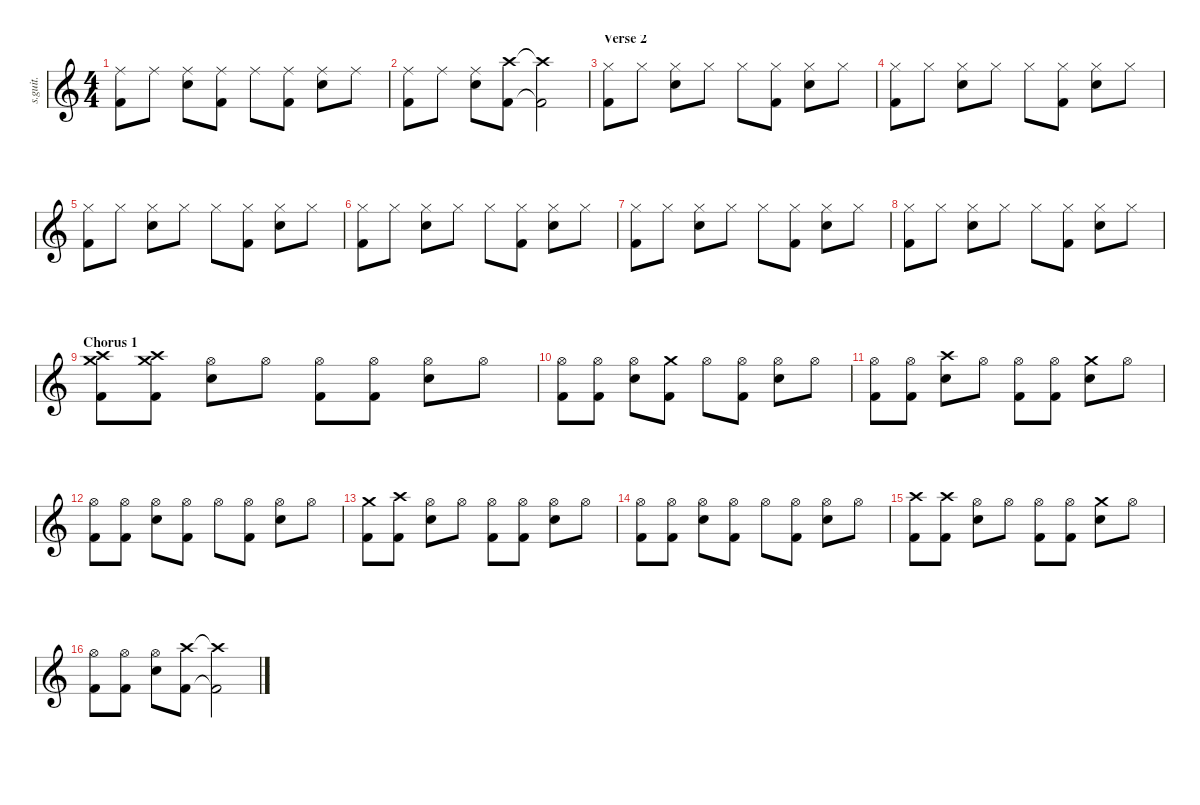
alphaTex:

\defaultSystemsLayout 4
\hideDynamics
\bracketExtendMode nobrackets
\track ("Drums (Pat Wilson)" "s.guit.") {instrument percussion}
\staff {score}
\articulation defaults
\ts (4 4)
\tempo (76 hide)
\clef g2
\ks c
("Ride (middle)" "Kick (hit) 2").8{lyrics (0 "") lyrics (1 "") lyrics (2 "") lyrics (3 "") lyrics (4 "") lyrics (5 "") lyrics (6 "") lyrics (7 "") lyrics (8 "") lyrics (9 "") dy f} "Ride (middle)".8{lyrics (0 "") lyrics (1 "") lyrics (2 "") lyrics (3 "") lyrics (4 "") lyrics (5 "") lyrics (6 "") lyrics (7 "") lyrics (8 "") lyrics (9 "")} ("Ride (middle)" "Snare (hit) 2").8{lyrics (0 "") lyrics (1 "") lyrics (2 "") lyrics (3 "") lyrics (4 "") lyrics (5 "") lyrics (6 "") lyrics (7 "") lyrics (8 "") lyrics (9 "")} ("Ride (middle)" "Kick (hit) 2").8{lyrics (0 "") lyrics (1 "") lyrics (2 "") lyrics (3 "") lyrics (4 "") lyrics (5 "") lyrics (6 "") lyrics (7 "") lyrics (8 "") lyrics (9 "")} "Ride (middle)".8{lyrics (0 "") lyrics (1 "") lyrics (2 "") lyrics (3 "") lyrics (4 "") lyrics (5 "") lyrics (6 "") lyrics (7 "") lyrics (8 "") lyrics (9 "")} ("Ride (middle)" "Kick (hit) 2").8{lyrics (0 "") lyrics (1 "") lyrics (2 "") lyrics (3 "") lyrics (4 "") lyrics (5 "") lyrics (6 "") lyrics (7 "") lyrics (8 "") lyrics (9 "")} ("Ride (middle)" "Snare (hit) 2").8{lyrics (0 "") lyrics (1 "") lyrics (2 "") lyrics (3 "") lyrics (4 "") lyrics (5 "") lyrics (6 "") lyrics (7 "") lyrics (8 "") lyrics (9 "")} "Ride (middle)".8{lyrics (0 "") lyrics (1 "") lyrics (2 "") lyrics (3 "") lyrics (4 "") lyrics (5 "") lyrics (6 "") lyrics (7 "") lyrics (8 "") lyrics (9 "")} |
("Ride (middle)" "Kick (hit) 2").8{lyrics (0 "") lyrics (1 "") lyrics (2 "") lyrics (3 "") lyrics (4 "") lyrics (5 "") lyrics (6 "") lyrics (7 "") lyrics (8 "") lyrics (9 "")} "Ride (middle)".8{lyrics (0 "") lyrics (1 "") lyrics (2 "") lyrics (3 "") lyrics (4 "") lyrics (5 "") lyrics (6 "") lyrics (7 "") lyrics (8 "") lyrics (9 "")} ("Ride (middle)" "Snare (hit) 2").8{lyrics (0 "") lyrics (1 "") lyrics (2 "") lyrics (3 "") lyrics (4 "") lyrics (5 "") lyrics (6 "") lyrics (7 "") lyrics (8 "") lyrics (9 "")} ("Crash high (hit)" "Kick (hit) 2").8{lyrics (0 "") lyrics (1 "") lyrics (2 "") lyrics (3 "") lyrics (4 "") lyrics (5 "") lyrics (6 "") lyrics (7 "") lyrics (8 "") lyrics (9 "")} ("Crash high (hit)"{t} "Kick (hit) 2"{t}).2{lyrics (0 "") lyrics (1 "") lyrics (2 "") lyrics (3 "") lyrics (4 "") lyrics (5 "") lyrics (6 "") lyrics (7 "") lyrics (8 "") lyrics (9 "")} |
\section ("" "Verse 2")
("Hi-Hat (closed)" "Kick (hit) 2").8{lyrics (0 "") lyrics (1 "") lyrics (2 "") lyrics (3 "") lyrics (4 "") lyrics (5 "") lyrics (6 "") lyrics (7 "") lyrics (8 "") lyrics (9 "")} "Hi-Hat (closed)".8{lyrics (0 "") lyrics (1 "") lyrics (2 "") lyrics (3 "") lyrics (4 "") lyrics (5 "") lyrics (6 "") lyrics (7 "") lyrics (8 "") lyrics (9 "")} ("Hi-Hat (closed)" "Snare (hit) 2").8{lyrics (0 "") lyrics (1 "") lyrics (2 "") lyrics (3 "") lyrics (4 "") lyrics (5 "") lyrics (6 "") lyrics (7 "") lyrics (8 "") lyrics (9 "")} "Hi-Hat (closed)".8{lyrics (0 "") lyrics (1 "") lyrics (2 "") lyrics (3 "") lyrics (4 "") lyrics (5 "") lyrics (6 "") lyrics (7 "") lyrics (8 "") lyrics (9 "")} "Hi-Hat (closed)".8{lyrics (0 "") lyrics (1 "") lyrics (2 "") lyrics (3 "") lyrics (4 "") lyrics (5 "") lyrics (6 "") lyrics (7 "") lyrics (8 "") lyrics (9 "")} ("Hi-Hat (closed)" "Kick (hit) 2").8{lyrics (0 "") lyrics (1 "") lyrics (2 "") lyrics (3 "") lyrics (4 "") lyrics (5 "") lyrics (6 "") lyrics (7 "") lyrics (8 "") lyrics (9 "")} ("Hi-Hat (closed)" "Snare (hit) 2").8{lyrics (0 "") lyrics (1 "") lyrics (2 "") lyrics (3 "") lyrics (4 "") lyrics (5 "") lyrics (6 "") lyrics (7 "") lyrics (8 "") lyrics (9 "")} "Hi-Hat (closed)".8{lyrics (0 "") lyrics (1 "") lyrics (2 "") lyrics (3 "") lyrics (4 "") lyrics (5 "") lyrics (6 "") lyrics (7 "") lyrics (8 "") lyrics (9 "")} |
("Hi-Hat (closed)" "Kick (hit) 2").8{lyrics (0 "") lyrics (1 "") lyrics (2 "") lyrics (3 "") lyrics (4 "") lyrics (5 "") lyrics (6 "") lyrics (7 "") lyrics (8 "") lyrics (9 "")} "Hi-Hat (closed)".8{lyrics (0 "") lyrics (1 "") lyrics (2 "") lyrics (3 "") lyrics (4 "") lyrics (5 "") lyrics (6 "") lyrics (7 "") lyrics (8 "") lyrics (9 "")} ("Hi-Hat (closed)" "Snare (hit) 2").8{lyrics (0 "") lyrics (1 "") lyrics (2 "") lyrics (3 "") lyrics (4 "") lyrics (5 "") lyrics (6 "") lyrics (7 "") lyrics (8 "") lyrics (9 "")} "Hi-Hat (closed)".8{lyrics (0 "") lyrics (1 "") lyrics (2 "") lyrics (3 "") lyrics (4 "") lyrics (5 "") lyrics (6 "") lyrics (7 "") lyrics (8 "") lyrics (9 "")} "Hi-Hat (closed)".8{lyrics (0 "") lyrics (1 "") lyrics (2 "") lyrics (3 "") lyrics (4 "") lyrics (5 "") lyrics (6 "") lyrics (7 "") lyrics (8 "") lyrics (9 "")} ("Hi-Hat (closed)" "Kick (hit) 2").8{lyrics (0 "") lyrics (1 "") lyrics (2 "") lyrics (3 "") lyrics (4 "") lyrics (5 "") lyrics (6 "") lyrics (7 "") lyrics (8 "") lyrics (9 "")} ("Hi-Hat (closed)" "Snare (hit) 2").8{lyrics (0 "") lyrics (1 "") lyrics (2 "") lyrics (3 "") lyrics (4 "") lyrics (5 "") lyrics (6 "") lyrics (7 "") lyrics (8 "") lyrics (9 "")} "Hi-Hat (closed)".8{lyrics (0 "") lyrics (1 "") lyrics (2 "") lyrics (3 "") lyrics (4 "") lyrics (5 "") lyrics (6 "") lyrics (7 "") lyrics (8 "") lyrics (9 "")} |
("Hi-Hat (closed)" "Kick (hit) 2").8{lyrics (0 "") lyrics (1 "") lyrics (2 "") lyrics (3 "") lyrics (4 "") lyrics (5 "") lyrics (6 "") lyrics (7 "") lyrics (8 "") lyrics (9 "")} "Hi-Hat (closed)".8{lyrics (0 "") lyrics (1 "") lyrics (2 "") lyrics (3 "") lyrics (4 "") lyrics (5 "") lyrics (6 "") lyrics (7 "") lyrics (8 "") lyrics (9 "")} ("Hi-Hat (closed)" "Snare (hit) 2").8{lyrics (0 "") lyrics (1 "") lyrics (2 "") lyrics (3 "") lyrics (4 "") lyrics (5 "") lyrics (6 "") lyrics (7 "") lyrics (8 "") lyrics (9 "")} "Hi-Hat (closed)".8{lyrics (0 "") lyrics (1 "") lyrics (2 "") lyrics (3 "") lyrics (4 "") lyrics (5 "") lyrics (6 "") lyrics (7 "") lyrics (8 "") lyrics (9 "")} "Hi-Hat (closed)".8{lyrics (0 "") lyrics (1 "") lyrics (2 "") lyrics (3 "") lyrics (4 "") lyrics (5 "") lyrics (6 "") lyrics (7 "") lyrics (8 "") lyrics (9 "")} ("Hi-Hat (closed)" "Kick (hit) 2").8{lyrics (0 "") lyrics (1 "") lyrics (2 "") lyrics (3 "") lyrics (4 "") lyrics (5 "") lyrics (6 "") lyrics (7 "") lyrics (8 "") lyrics (9 "")} ("Hi-Hat (closed)" "Snare (hit) 2").8{lyrics (0 "") lyrics (1 "") lyrics (2 "") lyrics (3 "") lyrics (4 "") lyrics (5 "") lyrics (6 "") lyrics (7 "") lyrics (8 "") lyrics (9 "")} "Hi-Hat (closed)".8{lyrics (0 "") lyrics (1 "") lyrics (2 "") lyrics (3 "") lyrics (4 "") lyrics (5 "") lyrics (6 "") lyrics (7 "") lyrics (8 "") lyrics (9 "")} |
("Hi-Hat (closed)" "Kick (hit) 2").8{lyrics (0 "") lyrics (1 "") lyrics (2 "") lyrics (3 "") lyrics (4 "") lyrics (5 "") lyrics (6 "") lyrics (7 "") lyrics (8 "") lyrics (9 "")} "Hi-Hat (closed)".8{lyrics (0 "") lyrics (1 "") lyrics (2 "") lyrics (3 "") lyrics (4 "") lyrics (5 "") lyrics (6 "") lyrics (7 "") lyrics (8 "") lyrics (9 "")} ("Hi-Hat (closed)" "Snare (hit) 2").8{lyrics (0 "") lyrics (1 "") lyrics (2 "") lyrics (3 "") lyrics (4 "") lyrics (5 "") lyrics (6 "") lyrics (7 "") lyrics (8 "") lyrics (9 "")} "Hi-Hat (closed)".8{lyrics (0 "") lyrics (1 "") lyrics (2 "") lyrics (3 "") lyrics (4 "") lyrics (5 "") lyrics (6 "") lyrics (7 "") lyrics (8 "") lyrics (9 "")} "Hi-Hat (closed)".8{lyrics (0 "") lyrics (1 "") lyrics (2 "") lyrics (3 "") lyrics (4 "") lyrics (5 "") lyrics (6 "") lyrics (7 "") lyrics (8 "") lyrics (9 "")} ("Hi-Hat (closed)" "Kick (hit) 2").8{lyrics (0 "") lyrics (1 "") lyrics (2 "") lyrics (3 "") lyrics (4 "") lyrics (5 "") lyrics (6 "") lyrics (7 "") lyrics (8 "") lyrics (9 "")} ("Hi-Hat (closed)" "Snare (hit) 2").8{lyrics (0 "") lyrics (1 "") lyrics (2 "") lyrics (3 "") lyrics (4 "") lyrics (5 "") lyrics (6 "") lyrics (7 "") lyrics (8 "") lyrics (9 "")} "Hi-Hat (closed)".8{lyrics (0 "") lyrics (1 "") lyrics (2 "") lyrics (3 "") lyrics (4 "") lyrics (5 "") lyrics (6 "") lyrics (7 "") lyrics (8 "") lyrics (9 "")} |
("Hi-Hat (closed)" "Kick (hit) 2").8{lyrics (0 "") lyrics (1 "") lyrics (2 "") lyrics (3 "") lyrics (4 "") lyrics (5 "") lyrics (6 "") lyrics (7 "") lyrics (8 "") lyrics (9 "")} "Hi-Hat (closed)".8{lyrics (0 "") lyrics (1 "") lyrics (2 "") lyrics (3 "") lyrics (4 "") lyrics (5 "") lyrics (6 "") lyrics (7 "") lyrics (8 "") lyrics (9 "")} ("Hi-Hat (closed)" "Snare (hit) 2").8{lyrics (0 "") lyrics (1 "") lyrics (2 "") lyrics (3 "") lyrics (4 "") lyrics (5 "") lyrics (6 "") lyrics (7 "") lyrics (8 "") lyrics (9 "")} "Hi-Hat (closed)".8{lyrics (0 "") lyrics (1 "") lyrics (2 "") lyrics (3 "") lyrics (4 "") lyrics (5 "") lyrics (6 "") lyrics (7 "") lyrics (8 "") lyrics (9 "")} "Hi-Hat (closed)".8{lyrics (0 "") lyrics (1 "") lyrics (2 "") lyrics (3 "") lyrics (4 "") lyrics (5 "") lyrics (6 "") lyrics (7 "") lyrics (8 "") lyrics (9 "")} ("Hi-Hat (closed)" "Kick (hit) 2").8{lyrics (0 "") lyrics (1 "") lyrics (2 "") lyrics (3 "") lyrics (4 "") lyrics (5 "") lyrics (6 "") lyrics (7 "") lyrics (8 "") lyrics (9 "")} ("Hi-Hat (closed)" "Snare (hit) 2").8{lyrics (0 "") lyrics (1 "") lyrics (2 "") lyrics (3 "") lyrics (4 "") lyrics (5 "") lyrics (6 "") lyrics (7 "") lyrics (8 "") lyrics (9 "")} "Hi-Hat (closed)".8{lyrics (0 "") lyrics (1 "") lyrics (2 "") lyrics (3 "") lyrics (4 "") lyrics (5 "") lyrics (6 "") lyrics (7 "") lyrics (8 "") lyrics (9 "")} |
("Hi-Hat (closed)" "Kick (hit) 2").8{lyrics (0 "") lyrics (1 "") lyrics (2 "") lyrics (3 "") lyrics (4 "") lyrics (5 "") lyrics (6 "") lyrics (7 "") lyrics (8 "") lyrics (9 "")} "Hi-Hat (closed)".8{lyrics (0 "") lyrics (1 "") lyrics (2 "") lyrics (3 "") lyrics (4 "") lyrics (5 "") lyrics (6 "") lyrics (7 "") lyrics (8 "") lyrics (9 "")} ("Hi-Hat (closed)" "Snare (hit) 2").8{lyrics (0 "") lyrics (1 "") lyrics (2 "") lyrics (3 "") lyrics (4 "") lyrics (5 "") lyrics (6 "") lyrics (7 "") lyrics (8 "") lyrics (9 "")} "Hi-Hat (closed)".8{lyrics (0 "") lyrics (1 "") lyrics (2 "") lyrics (3 "") lyrics (4 "") lyrics (5 "") lyrics (6 "") lyrics (7 "") lyrics (8 "") lyrics (9 "")} "Hi-Hat (closed)".8{lyrics (0 "") lyrics (1 "") lyrics (2 "") lyrics (3 "") lyrics (4 "") lyrics (5 "") lyrics (6 "") lyrics (7 "") lyrics (8 "") lyrics (9 "")} ("Hi-Hat (closed)" "Kick (hit) 2").8{lyrics (0 "") lyrics (1 "") lyrics (2 "") lyrics (3 "") lyrics (4 "") lyrics (5 "") lyrics (6 "") lyrics (7 "") lyrics (8 "") lyrics (9 "")} ("Hi-Hat (closed)" "Snare (hit) 2").8{lyrics (0 "") lyrics (1 "") lyrics (2 "") lyrics (3 "") lyrics (4 "") lyrics (5 "") lyrics (6 "") lyrics (7 "") lyrics (8 "") lyrics (9 "")} "Hi-Hat (closed)".8{lyrics (0 "") lyrics (1 "") lyrics (2 "") lyrics (3 "") lyrics (4 "") lyrics (5 "") lyrics (6 "") lyrics (7 "") lyrics (8 "") lyrics (9 "")} |
\section ("" "Chorus 1")
("Crash high (hit)" "Crash medium (hit)" "Kick (hit) 2").8{lyrics (0 "") lyrics (1 "") lyrics (2 "") lyrics (3 "") lyrics (4 "") lyrics (5 "") lyrics (6 "") lyrics (7 "") lyrics (8 "") lyrics (9 "")} ("Crash high (hit)" "Crash medium (hit)" "Kick (hit) 2").8{lyrics (0 "") lyrics (1 "") lyrics (2 "") lyrics (3 "") lyrics (4 "") lyrics (5 "") lyrics (6 "") lyrics (7 "") lyrics (8 "") lyrics (9 "")} ("Hi-Hat (open)" "Snare (hit) 2").8{lyrics (0 "") lyrics (1 "") lyrics (2 "") lyrics (3 "") lyrics (4 "") lyrics (5 "") lyrics (6 "") lyrics (7 "") lyrics (8 "") lyrics (9 "")} "Hi-Hat (open)".8{lyrics (0 "") lyrics (1 "") lyrics (2 "") lyrics (3 "") lyrics (4 "") lyrics (5 "") lyrics (6 "") lyrics (7 "") lyrics (8 "") lyrics (9 "")} ("Hi-Hat (open)" "Kick (hit) 2").8{lyrics (0 "") lyrics (1 "") lyrics (2 "") lyrics (3 "") lyrics (4 "") lyrics (5 "") lyrics (6 "") lyrics (7 "") lyrics (8 "") lyrics (9 "")} ("Hi-Hat (open)" "Kick (hit) 2").8{lyrics (0 "") lyrics (1 "") lyrics (2 "") lyrics (3 "") lyrics (4 "") lyrics (5 "") lyrics (6 "") lyrics (7 "") lyrics (8 "") lyrics (9 "")} ("Hi-Hat (open)" "Snare (hit) 2").8{lyrics (0 "") lyrics (1 "") lyrics (2 "") lyrics (3 "") lyrics (4 "") lyrics (5 "") lyrics (6 "") lyrics (7 "") lyrics (8 "") lyrics (9 "")} "Hi-Hat (open)".8{lyrics (0 "") lyrics (1 "") lyrics (2 "") lyrics (3 "") lyrics (4 "") lyrics (5 "") lyrics (6 "") lyrics (7 "") lyrics (8 "") lyrics (9 "")} |
("Hi-Hat (open)" "Kick (hit) 2").8{lyrics (0 "") lyrics (1 "") lyrics (2 "") lyrics (3 "") lyrics (4 "") lyrics (5 "") lyrics (6 "") lyrics (7 "") lyrics (8 "") lyrics (9 "")} ("Hi-Hat (open)" "Kick (hit) 2").8{lyrics (0 "") lyrics (1 "") lyrics (2 "") lyrics (3 "") lyrics (4 "") lyrics (5 "") lyrics (6 "") lyrics (7 "") lyrics (8 "") lyrics (9 "")} ("Hi-Hat (open)" "Snare (hit) 2").8{lyrics (0 "") lyrics (1 "") lyrics (2 "") lyrics (3 "") lyrics (4 "") lyrics (5 "") lyrics (6 "") lyrics (7 "") lyrics (8 "") lyrics (9 "")} ("Crash medium (hit)" "Kick (hit) 2").8{lyrics (0 "") lyrics (1 "") lyrics (2 "") lyrics (3 "") lyrics (4 "") lyrics (5 "") lyrics (6 "") lyrics (7 "") lyrics (8 "") lyrics (9 "")} "Hi-Hat (open)".8{lyrics (0 "") lyrics (1 "") lyrics (2 "") lyrics (3 "") lyrics (4 "") lyrics (5 "") lyrics (6 "") lyrics (7 "") lyrics (8 "") lyrics (9 "")} ("Hi-Hat (open)" "Kick (hit) 2").8{lyrics (0 "") lyrics (1 "") lyrics (2 "") lyrics (3 "") lyrics (4 "") lyrics (5 "") lyrics (6 "") lyrics (7 "") lyrics (8 "") lyrics (9 "")} ("Hi-Hat (open)" "Snare (hit) 2").8{lyrics (0 "") lyrics (1 "") lyrics (2 "") lyrics (3 "") lyrics (4 "") lyrics (5 "") lyrics (6 "") lyrics (7 "") lyrics (8 "") lyrics (9 "")} "Hi-Hat (open)".8{lyrics (0 "") lyrics (1 "") lyrics (2 "") lyrics (3 "") lyrics (4 "") lyrics (5 "") lyrics (6 "") lyrics (7 "") lyrics (8 "") lyrics (9 "")} |
("Hi-Hat (open)" "Kick (hit) 2").8{lyrics (0 "") lyrics (1 "") lyrics (2 "") lyrics (3 "") lyrics (4 "") lyrics (5 "") lyrics (6 "") lyrics (7 "") lyrics (8 "") lyrics (9 "")} ("Hi-Hat (open)" "Kick (hit) 2").8{lyrics (0 "") lyrics (1 "") lyrics (2 "") lyrics (3 "") lyrics (4 "") lyrics (5 "") lyrics (6 "") lyrics (7 "") lyrics (8 "") lyrics (9 "")} ("Crash high (hit)" "Snare (hit) 2").8{lyrics (0 "") lyrics (1 "") lyrics (2 "") lyrics (3 "") lyrics (4 "") lyrics (5 "") lyrics (6 "") lyrics (7 "") lyrics (8 "") lyrics (9 "")} "Hi-Hat (open)".8{lyrics (0 "") lyrics (1 "") lyrics (2 "") lyrics (3 "") lyrics (4 "") lyrics (5 "") lyrics (6 "") lyrics (7 "") lyrics (8 "") lyrics (9 "")} ("Hi-Hat (open)" "Kick (hit) 2").8{lyrics (0 "") lyrics (1 "") lyrics (2 "") lyrics (3 "") lyrics (4 "") lyrics (5 "") lyrics (6 "") lyrics (7 "") lyrics (8 "") lyrics (9 "")} ("Hi-Hat (open)" "Kick (hit) 2").8{lyrics (0 "") lyrics (1 "") lyrics (2 "") lyrics (3 "") lyrics (4 "") lyrics (5 "") lyrics (6 "") lyrics (7 "") lyrics (8 "") lyrics (9 "")} ("Crash medium (hit)" "Snare (hit) 2").8{lyrics (0 "") lyrics (1 "") lyrics (2 "") lyrics (3 "") lyrics (4 "") lyrics (5 "") lyrics (6 "") lyrics (7 "") lyrics (8 "") lyrics (9 "")} "Hi-Hat (open)".8{lyrics (0 "") lyrics (1 "") lyrics (2 "") lyrics (3 "") lyrics (4 "") lyrics (5 "") lyrics (6 "") lyrics (7 "") lyrics (8 "") lyrics (9 "")} |
("Hi-Hat (open)" "Kick (hit) 2").8{lyrics (0 "") lyrics (1 "") lyrics (2 "") lyrics (3 "") lyrics (4 "") lyrics (5 "") lyrics (6 "") lyrics (7 "") lyrics (8 "") lyrics (9 "")} ("Hi-Hat (open)" "Kick (hit) 2").8{lyrics (0 "") lyrics (1 "") lyrics (2 "") lyrics (3 "") lyrics (4 "") lyrics (5 "") lyrics (6 "") lyrics (7 "") lyrics (8 "") lyrics (9 "")} ("Hi-Hat (open)" "Snare (hit) 2").8{lyrics (0 "") lyrics (1 "") lyrics (2 "") lyrics (3 "") lyrics (4 "") lyrics (5 "") lyrics (6 "") lyrics (7 "") lyrics (8 "") lyrics (9 "")} ("Hi-Hat (open)" "Kick (hit) 2").8{lyrics (0 "") lyrics (1 "") lyrics (2 "") lyrics (3 "") lyrics (4 "") lyrics (5 "") lyrics (6 "") lyrics (7 "") lyrics (8 "") lyrics (9 "")} "Hi-Hat (open)".8{lyrics (0 "") lyrics (1 "") lyrics (2 "") lyrics (3 "") lyrics (4 "") lyrics (5 "") lyrics (6 "") lyrics (7 "") lyrics (8 "") lyrics (9 "")} ("Hi-Hat (open)" "Kick (hit) 2").8{lyrics (0 "") lyrics (1 "") lyrics (2 "") lyrics (3 "") lyrics (4 "") lyrics (5 "") lyrics (6 "") lyrics (7 "") lyrics (8 "") lyrics (9 "")} ("Hi-Hat (open)" "Snare (hit) 2").8{lyrics (0 "") lyrics (1 "") lyrics (2 "") lyrics (3 "") lyrics (4 "") lyrics (5 "") lyrics (6 "") lyrics (7 "") lyrics (8 "") lyrics (9 "")} "Hi-Hat (open)".8{lyrics (0 "") lyrics (1 "") lyrics (2 "") lyrics (3 "") lyrics (4 "") lyrics (5 "") lyrics (6 "") lyrics (7 "") lyrics (8 "") lyrics (9 "")} |
("Crash medium (hit)" "Kick (hit) 2").8{lyrics (0 "") lyrics (1 "") lyrics (2 "") lyrics (3 "") lyrics (4 "") lyrics (5 "") lyrics (6 "") lyrics (7 "") lyrics (8 "") lyrics (9 "")} ("Crash high (hit)" "Kick (hit) 2").8{lyrics (0 "") lyrics (1 "") lyrics (2 "") lyrics (3 "") lyrics (4 "") lyrics (5 "") lyrics (6 "") lyrics (7 "") lyrics (8 "") lyrics (9 "")} ("Hi-Hat (open)" "Snare (hit) 2").8{lyrics (0 "") lyrics (1 "") lyrics (2 "") lyrics (3 "") lyrics (4 "") lyrics (5 "") lyrics (6 "") lyrics (7 "") lyrics (8 "") lyrics (9 "")} "Hi-Hat (open)".8{lyrics (0 "") lyrics (1 "") lyrics (2 "") lyrics (3 "") lyrics (4 "") lyrics (5 "") lyrics (6 "") lyrics (7 "") lyrics (8 "") lyrics (9 "")} ("Hi-Hat (open)" "Kick (hit) 2").8{lyrics (0 "") lyrics (1 "") lyrics (2 "") lyrics (3 "") lyrics (4 "") lyrics (5 "") lyrics (6 "") lyrics (7 "") lyrics (8 "") lyrics (9 "")} ("Hi-Hat (open)" "Kick (hit) 2").8{lyrics (0 "") lyrics (1 "") lyrics (2 "") lyrics (3 "") lyrics (4 "") lyrics (5 "") lyrics (6 "") lyrics (7 "") lyrics (8 "") lyrics (9 "")} ("Hi-Hat (open)" "Snare (hit) 2").8{lyrics (0 "") lyrics (1 "") lyrics (2 "") lyrics (3 "") lyrics (4 "") lyrics (5 "") lyrics (6 "") lyrics (7 "") lyrics (8 "") lyrics (9 "")} "Hi-Hat (open)".8{lyrics (0 "") lyrics (1 "") lyrics (2 "") lyrics (3 "") lyrics (4 "") lyrics (5 "") lyrics (6 "") lyrics (7 "") lyrics (8 "") lyrics (9 "")} |
("Hi-Hat (open)" "Kick (hit) 2").8{lyrics (0 "") lyrics (1 "") lyrics (2 "") lyrics (3 "") lyrics (4 "") lyrics (5 "") lyrics (6 "") lyrics (7 "") lyrics (8 "") lyrics (9 "")} ("Hi-Hat (open)" "Kick (hit) 2").8{lyrics (0 "") lyrics (1 "") lyrics (2 "") lyrics (3 "") lyrics (4 "") lyrics (5 "") lyrics (6 "") lyrics (7 "") lyrics (8 "") lyrics (9 "")} ("Hi-Hat (open)" "Snare (hit) 2").8{lyrics (0 "") lyrics (1 "") lyrics (2 "") lyrics (3 "") lyrics (4 "") lyrics (5 "") lyrics (6 "") lyrics (7 "") lyrics (8 "") lyrics (9 "")} ("Hi-Hat (open)" "Kick (hit) 2").8{lyrics (0 "") lyrics (1 "") lyrics (2 "") lyrics (3 "") lyrics (4 "") lyrics (5 "") lyrics (6 "") lyrics (7 "") lyrics (8 "") lyrics (9 "")} "Hi-Hat (open)".8{lyrics (0 "") lyrics (1 "") lyrics (2 "") lyrics (3 "") lyrics (4 "") lyrics (5 "") lyrics (6 "") lyrics (7 "") lyrics (8 "") lyrics (9 "")} ("Hi-Hat (open)" "Kick (hit) 2").8{lyrics (0 "") lyrics (1 "") lyrics (2 "") lyrics (3 "") lyrics (4 "") lyrics (5 "") lyrics (6 "") lyrics (7 "") lyrics (8 "") lyrics (9 "")} ("Hi-Hat (open)" "Snare (hit) 2").8{lyrics (0 "") lyrics (1 "") lyrics (2 "") lyrics (3 "") lyrics (4 "") lyrics (5 "") lyrics (6 "") lyrics (7 "") lyrics (8 "") lyrics (9 "")} "Hi-Hat (open)".8{lyrics (0 "") lyrics (1 "") lyrics (2 "") lyrics (3 "") lyrics (4 "") lyrics (5 "") lyrics (6 "") lyrics (7 "") lyrics (8 "") lyrics (9 "")} |
("Crash high (hit)" "Kick (hit) 2").8{lyrics (0 "") lyrics (1 "") lyrics (2 "") lyrics (3 "") lyrics (4 "") lyrics (5 "") lyrics (6 "") lyrics (7 "") lyrics (8 "") lyrics (9 "")} ("Crash high (hit)" "Kick (hit) 2").8{lyrics (0 "") lyrics (1 "") lyrics (2 "") lyrics (3 "") lyrics (4 "") lyrics (5 "") lyrics (6 "") lyrics (7 "") lyrics (8 "") lyrics (9 "")} ("Hi-Hat (open)" "Snare (hit) 2").8{lyrics (0 "") lyrics (1 "") lyrics (2 "") lyrics (3 "") lyrics (4 "") lyrics (5 "") lyrics (6 "") lyrics (7 "") lyrics (8 "") lyrics (9 "")} "Hi-Hat (open)".8{lyrics (0 "") lyrics (1 "") lyrics (2 "") lyrics (3 "") lyrics (4 "") lyrics (5 "") lyrics (6 "") lyrics (7 "") lyrics (8 "") lyrics (9 "")} ("Hi-Hat (open)" "Kick (hit) 2").8{lyrics (0 "") lyrics (1 "") lyrics (2 "") lyrics (3 "") lyrics (4 "") lyrics (5 "") lyrics (6 "") lyrics (7 "") lyrics (8 "") lyrics (9 "")} ("Hi-Hat (open)" "Kick (hit) 2").8{lyrics (0 "") lyrics (1 "") lyrics (2 "") lyrics (3 "") lyrics (4 "") lyrics (5 "") lyrics (6 "") lyrics (7 "") lyrics (8 "") lyrics (9 "")} ("Crash medium (hit)" "Snare (hit) 2").8{lyrics (0 "") lyrics (1 "") lyrics (2 "") lyrics (3 "") lyrics (4 "") lyrics (5 "") lyrics (6 "") lyrics (7 "") lyrics (8 "") lyrics (9 "")} "Hi-Hat (open)".8{lyrics (0 "") lyrics (1 "") lyrics (2 "") lyrics (3 "") lyrics (4 "") lyrics (5 "") lyrics (6 "") lyrics (7 "") lyrics (8 "") lyrics (9 "")} |
("Hi-Hat (open)" "Kick (hit) 2").8{lyrics (0 "") lyrics (1 "") lyrics (2 "") lyrics (3 "") lyrics (4 "") lyrics (5 "") lyrics (6 "") lyrics (7 "") lyrics (8 "") lyrics (9 "")} ("Hi-Hat (open)" "Kick (hit) 2").8{lyrics (0 "") lyrics (1 "") lyrics (2 "") lyrics (3 "") lyrics (4 "") lyrics (5 "") lyrics (6 "") lyrics (7 "") lyrics (8 "") lyrics (9 "")} ("Hi-Hat (open)" "Snare (hit) 2").8{lyrics (0 "") lyrics (1 "") lyrics (2 "") lyrics (3 "") lyrics (4 "") lyrics (5 "") lyrics (6 "") lyrics (7 "") lyrics (8 "") lyrics (9 "")} ("Crash high (hit)" "Kick (hit) 2").8{lyrics (0 "") lyrics (1 "") lyrics (2 "") lyrics (3 "") lyrics (4 "") lyrics (5 "") lyrics (6 "") lyrics (7 "") lyrics (8 "") lyrics (9 "")} ("Crash high (hit)"{t} "Kick (hit) 2"{t}).2{lyrics (0 "") lyrics (1 "") lyrics (2 "") lyrics (3 "") lyrics (4 "") lyrics (5 "") lyrics (6 "") lyrics (7 "") lyrics (8 "") lyrics (9 "")}
